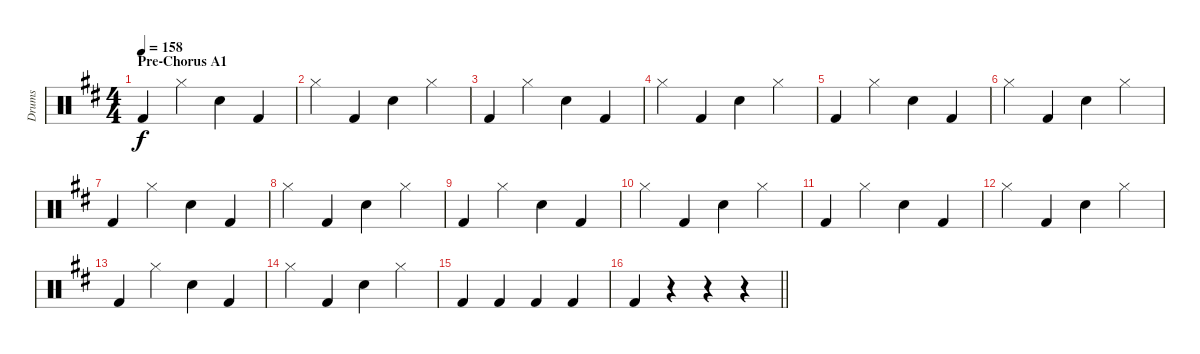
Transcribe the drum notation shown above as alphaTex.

\track ("Drums" "Drums") {instrument percussion}
\staff {score}
\articulation defaults
\ts (4 4)
\section ("" "Pre-Chorus A1")
\tempo 158
\clef neutral
\ks d "Kick (hit) 2".4{dy f} "Hi-Hat (closed)".4 "Snare (hit) 2".4 "Kick (hit) 2".4
|
"Hi-Hat (closed)".4 "Kick (hit) 2".4 "Snare (hit) 2".4 "Hi-Hat (closed)".4 |
"Kick (hit) 2".4 "Hi-Hat (closed)".4 "Snare (hit) 2".4 "Kick (hit) 2".4 |
"Hi-Hat (closed)".4 "Kick (hit) 2".4 "Snare (hit) 2".4 "Hi-Hat (closed)".4 |
"Kick (hit) 2".4 "Hi-Hat (closed)".4 "Snare (hit) 2".4 "Kick (hit) 2".4 |
"Hi-Hat (closed)".4 "Kick (hit) 2".4 "Snare (hit) 2".4 "Hi-Hat (closed)".4 |
"Kick (hit) 2".4 "Hi-Hat (closed)".4 "Snare (hit) 2".4 "Kick (hit) 2".4 |
"Hi-Hat (closed)".4 "Kick (hit) 2".4 "Snare (hit) 2".4 "Hi-Hat (closed)".4 |
"Kick (hit) 2".4 "Hi-Hat (closed)".4 "Snare (hit) 2".4 "Kick (hit) 2".4 |
"Hi-Hat (closed)".4 "Kick (hit) 2".4 "Snare (hit) 2".4 "Hi-Hat (closed)".4 |
"Kick (hit) 2".4 "Hi-Hat (closed)".4 "Snare (hit) 2".4 "Kick (hit) 2".4 |
"Hi-Hat (closed)".4 "Kick (hit) 2".4 "Snare (hit) 2".4 "Hi-Hat (closed)".4 |
"Kick (hit) 2".4 "Hi-Hat (closed)".4 "Snare (hit) 2".4 "Kick (hit) 2".4 |
"Hi-Hat (closed)".4 "Kick (hit) 2".4 "Snare (hit) 2".4 "Hi-Hat (closed)".4 |
"Kick (hit) 2".4 "Kick (hit) 2".4 "Kick (hit) 2".4 "Kick (hit) 2".4 |
\barLineRight lightlight "Kick (hit) 2".4
r.4 r.4 r.4
